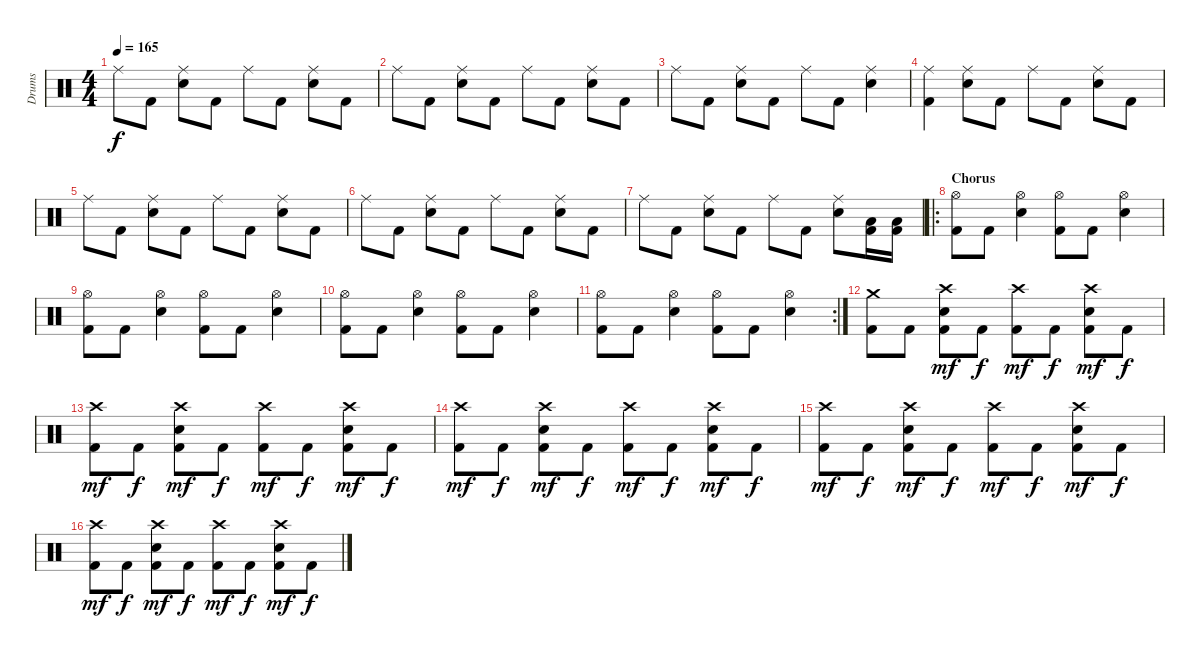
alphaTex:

\track ("Drums" "Drums") {instrument percussion}
\staff {score}
\articulation defaults
\ts (4 4)
\tempo 165
\clef neutral
\ks c "Ride (middle)".8{dy f} "Kick (hit) 2".8
("Electric Snare (hit)" "Ride (middle)").8 "Kick (hit) 2".8 "Ride (middle)".8 "Kick (hit) 2".8 ("Electric Snare (hit)" "Ride (middle)").8 "Kick (hit) 2".8 |
"Ride (middle)".8 "Kick (hit) 2".8 ("Electric Snare (hit)" "Ride (middle)").8 "Kick (hit) 2".8 "Ride (middle)".8 "Kick (hit) 2".8 ("Electric Snare (hit)" "Ride (middle)").8 "Kick (hit) 2".8 |
"Ride (middle)".8 "Kick (hit) 2".8 ("Electric Snare (hit)" "Ride (middle)").8 "Kick (hit) 2".8 "Ride (middle)".8 "Kick (hit) 2".8 ("Electric Snare (hit)" "Ride (middle)").4 |
("Kick (hit) 2" "Ride (middle)").4 ("Electric Snare (hit)" "Ride (middle)").8 "Kick (hit) 2".8 "Ride (middle)".8 "Kick (hit) 2".8 ("Electric Snare (hit)" "Ride (middle)").8 "Kick (hit) 2".8 |
"Ride (middle)".8 "Kick (hit) 2".8 ("Electric Snare (hit)" "Ride (middle)").8 "Kick (hit) 2".8 "Ride (middle)".8 "Kick (hit) 2".8 ("Electric Snare (hit)" "Ride (middle)").8 "Kick (hit) 2".8 |
"Ride (middle)".8 "Kick (hit) 2".8 ("Electric Snare (hit)" "Ride (middle)").8 "Kick (hit) 2".8 "Ride (middle)".8 "Kick (hit) 2".8 ("Electric Snare (hit)" "Ride (middle)").8 "Kick (hit) 2".8 |
"Ride (middle)".8 "Kick (hit) 2".8 ("Electric Snare (hit)" "Ride (middle)").8 "Kick (hit) 2".8 "Ride (middle)".8 "Kick (hit) 2".8 ("Electric Snare (hit)" "Ride (middle)").8 ("Kick (hit) 2" "Low Tom (hit)").16 ("Kick (hit) 2" "Low Tom (hit)").16 |
\ro
\section ("" "Chorus")
("Kick (hit) 2" "Hi-Hat (open)").8 "Kick (hit) 2".8 ("Electric Snare (hit)" "Hi-Hat (open)").4 ("Kick (hit) 2" "Hi-Hat (open)").8 "Kick (hit) 2".8 ("Electric Snare (hit)" "Hi-Hat (open)").4 |
("Kick (hit) 2" "Hi-Hat (open)").8 "Kick (hit) 2".8 ("Electric Snare (hit)" "Hi-Hat (open)").4 ("Kick (hit) 2" "Hi-Hat (open)").8 "Kick (hit) 2".8 ("Electric Snare (hit)" "Hi-Hat (open)").4 |
("Kick (hit) 2" "Hi-Hat (open)").8 "Kick (hit) 2".8 ("Electric Snare (hit)" "Hi-Hat (open)").4 ("Kick (hit) 2" "Hi-Hat (open)").8 "Kick (hit) 2".8 ("Electric Snare (hit)" "Hi-Hat (open)").4 |
\rc 2
("Kick (hit) 2" "Hi-Hat (open)").8 "Kick (hit) 2".8 ("Electric Snare (hit)" "Hi-Hat (open)").4 ("Kick (hit) 2" "Hi-Hat (open)").8 "Kick (hit) 2".8 ("Electric Snare (hit)" "Hi-Hat (open)").4 |
("Kick (hit) 2" "Crash medium (hit)").8 "Kick (hit) 2".8 ("Kick (hit) 2" "Electric Snare (hit)" "Crash high (hit)").8{dy mf} "Kick (hit) 2".8{dy f} ("Kick (hit) 2" "Crash high (hit)").8{dy mf} "Kick (hit) 2".8{dy f} ("Kick (hit) 2" "Electric Snare (hit)" "Crash high (hit)").8{dy mf} "Kick (hit) 2".8{dy f} |
("Kick (hit) 2" "Crash high (hit)").8{dy mf} "Kick (hit) 2".8{dy f} ("Kick (hit) 2" "Electric Snare (hit)" "Crash high (hit)").8{dy mf} "Kick (hit) 2".8{dy f} ("Kick (hit) 2" "Crash high (hit)").8{dy mf} "Kick (hit) 2".8{dy f} ("Kick (hit) 2" "Electric Snare (hit)" "Crash high (hit)").8{dy mf} "Kick (hit) 2".8{dy f} |
("Kick (hit) 2" "Crash high (hit)").8{dy mf} "Kick (hit) 2".8{dy f} ("Kick (hit) 2" "Electric Snare (hit)" "Crash high (hit)").8{dy mf} "Kick (hit) 2".8{dy f} ("Kick (hit) 2" "Crash high (hit)").8{dy mf} "Kick (hit) 2".8{dy f} ("Kick (hit) 2" "Electric Snare (hit)" "Crash high (hit)").8{dy mf} "Kick (hit) 2".8{dy f} |
("Kick (hit) 2" "Crash high (hit)").8{dy mf} "Kick (hit) 2".8{dy f} ("Kick (hit) 2" "Electric Snare (hit)" "Crash high (hit)").8{dy mf} "Kick (hit) 2".8{dy f} ("Kick (hit) 2" "Crash high (hit)").8{dy mf} "Kick (hit) 2".8{dy f} ("Kick (hit) 2" "Electric Snare (hit)" "Crash high (hit)").8{dy mf} "Kick (hit) 2".8{dy f} |
("Kick (hit) 2" "Crash high (hit)").8{dy mf} "Kick (hit) 2".8{dy f} ("Kick (hit) 2" "Electric Snare (hit)" "Crash high (hit)").8{dy mf} "Kick (hit) 2".8{dy f} ("Kick (hit) 2" "Crash high (hit)").8{dy mf} "Kick (hit) 2".8{dy f} ("Kick (hit) 2" "Electric Snare (hit)" "Crash high (hit)").8{dy mf} "Kick (hit) 2".8{dy f}
